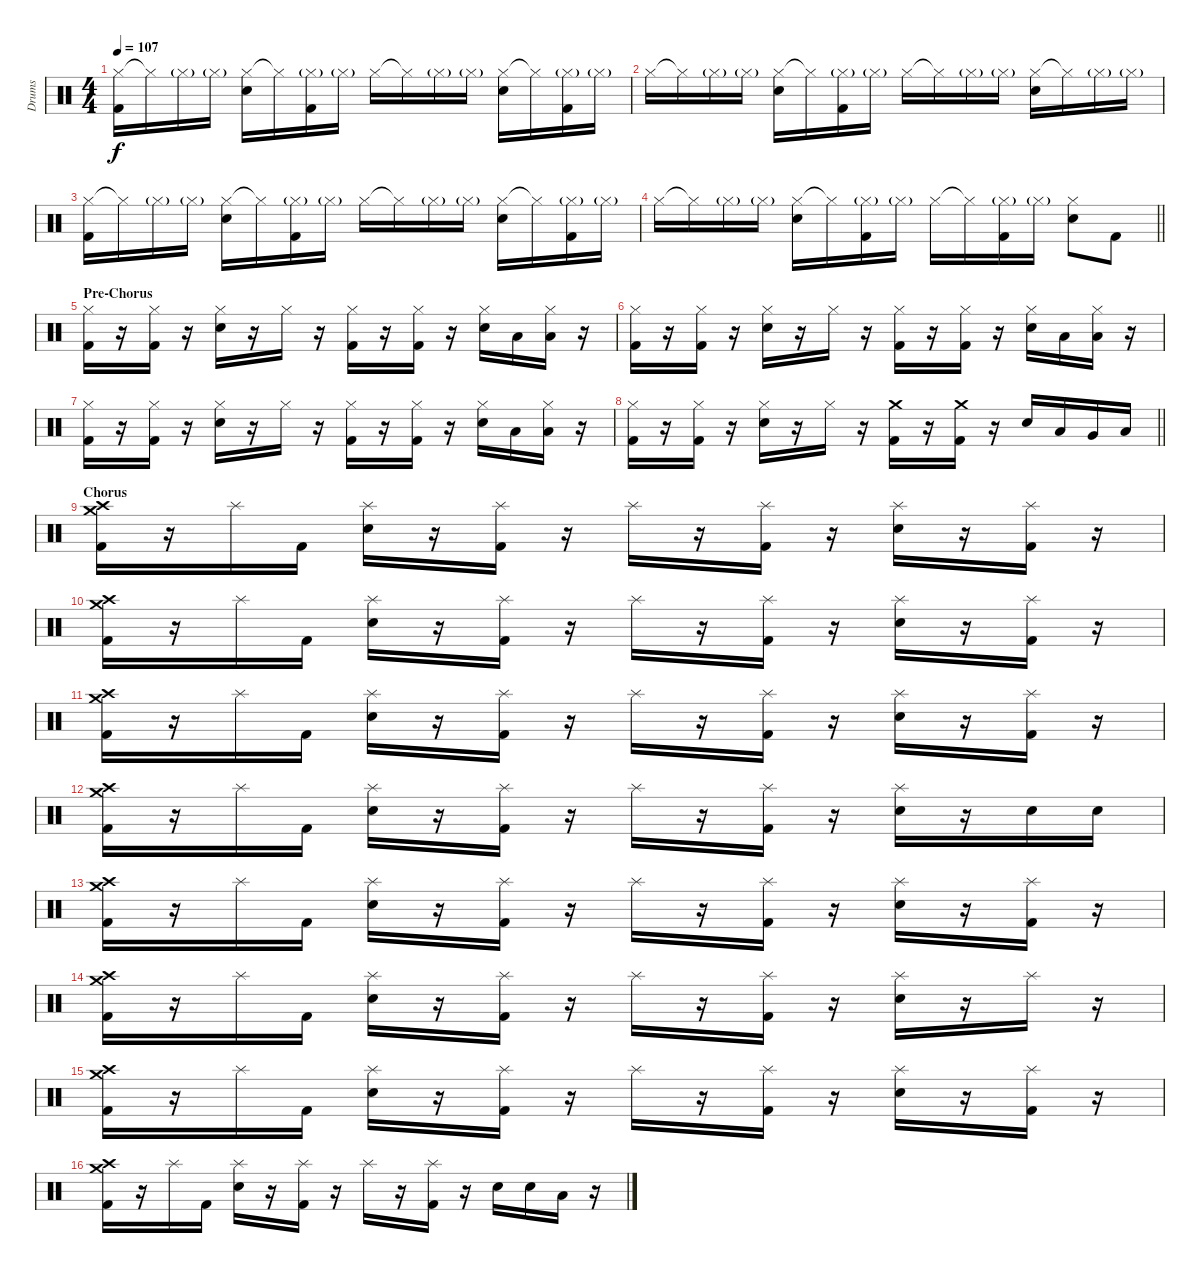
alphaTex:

\track ("Drums" "Drums") {instrument percussion}
\staff {score}
\articulation defaults
\ts (4 4)
\tempo 107
\clef neutral
\ks c
("Hi-Hat (closed)" "Kick (hit) 2").16{dy f} "Hi-Hat (closed)"{t}.16 "Hi-Hat (closed)"{g}.16 "Hi-Hat (closed)"{g}.16 ("Hi-Hat (closed)" "Electric Snare (hit)").16 "Hi-Hat (closed)"{t}.16 ("Hi-Hat (closed)"{g} "Kick (hit) 2").16 "Hi-Hat (closed)"{g}.16 "Hi-Hat (closed)".16 "Hi-Hat (closed)"{t}.16 "Hi-Hat (closed)"{g}.16 "Hi-Hat (closed)"{g}.16 ("Hi-Hat (closed)" "Electric Snare (hit)").16 "Hi-Hat (closed)"{t}.16 ("Hi-Hat (closed)"{g} "Kick (hit) 2").16 "Hi-Hat (closed)"{g}.16 |
"Hi-Hat (closed)".16 "Hi-Hat (closed)"{t}.16 "Hi-Hat (closed)"{g}.16 "Hi-Hat (closed)"{g}.16 ("Hi-Hat (closed)" "Electric Snare (hit)").16 "Hi-Hat (closed)"{t}.16 ("Hi-Hat (closed)"{g} "Kick (hit) 2").16 "Hi-Hat (closed)"{g}.16 "Hi-Hat (closed)".16 "Hi-Hat (closed)"{t}.16 "Hi-Hat (closed)"{g}.16 "Hi-Hat (closed)"{g}.16 ("Hi-Hat (closed)" "Electric Snare (hit)").16 "Hi-Hat (closed)"{t}.16 "Hi-Hat (closed)"{g}.16 "Hi-Hat (closed)"{g}.16 |
("Hi-Hat (closed)" "Kick (hit) 2").16 "Hi-Hat (closed)"{t}.16 "Hi-Hat (closed)"{g}.16 "Hi-Hat (closed)"{g}.16 ("Hi-Hat (closed)" "Electric Snare (hit)").16 "Hi-Hat (closed)"{t}.16 ("Hi-Hat (closed)"{g} "Kick (hit) 2").16 "Hi-Hat (closed)"{g}.16 "Hi-Hat (closed)".16 "Hi-Hat (closed)"{t}.16 "Hi-Hat (closed)"{g}.16 "Hi-Hat (closed)"{g}.16 ("Hi-Hat (closed)" "Electric Snare (hit)").16 "Hi-Hat (closed)"{t}.16 ("Hi-Hat (closed)"{g} "Kick (hit) 2").16 "Hi-Hat (closed)"{g}.16 |
\barLineRight lightlight "Hi-Hat (closed)".16 "Hi-Hat (closed)"{t}.16 "Hi-Hat (closed)"{g}.16 "Hi-Hat (closed)"{g}.16
("Hi-Hat (closed)" "Electric Snare (hit)").16 "Hi-Hat (closed)"{t}.16 ("Hi-Hat (closed)"{g} "Kick (hit) 2").16 "Hi-Hat (closed)"{g}.16 "Hi-Hat (closed)".16 "Hi-Hat (closed)"{t}.16 ("Hi-Hat (closed)"{g} "Kick (hit) 2").16 "Hi-Hat (closed)"{g}.16 ("Hi-Hat (closed)" "Electric Snare (hit)").8 "Kick (hit) 2".8 |
\section ("" "Pre-Chorus")
("Hi-Hat (closed)" "Kick (hit) 2").16 r.16 ("Hi-Hat (closed)" "Kick (hit) 2").16 r.16 ("Hi-Hat (closed)" "Electric Snare (hit)").16 r.16 "Hi-Hat (closed)".16 r.16 ("Hi-Hat (closed)" "Kick (hit) 2").16 r.16 ("Hi-Hat (closed)" "Kick (hit) 2").16 r.16 ("Hi-Hat (closed)" "Electric Snare (hit)").16 "Low Tom (hit)".16 ("Hi-Hat (closed)" "Low Floor Tom (hit)").16 r.16 |
("Hi-Hat (closed)" "Kick (hit) 2").16 r.16 ("Hi-Hat (closed)" "Kick (hit) 2").16 r.16 ("Hi-Hat (closed)" "Electric Snare (hit)").16 r.16 "Hi-Hat (closed)".16 r.16 ("Hi-Hat (closed)" "Kick (hit) 2").16 r.16 ("Hi-Hat (closed)" "Kick (hit) 2").16 r.16 ("Hi-Hat (closed)" "Electric Snare (hit)").16 "Low Tom (hit)".16 ("Hi-Hat (closed)" "Low Floor Tom (hit)").16 r.16 |
("Hi-Hat (closed)" "Kick (hit) 2").16 r.16 ("Hi-Hat (closed)" "Kick (hit) 2").16 r.16 ("Hi-Hat (closed)" "Electric Snare (hit)").16 r.16 "Hi-Hat (closed)".16 r.16 ("Hi-Hat (closed)" "Kick (hit) 2").16 r.16 ("Hi-Hat (closed)" "Kick (hit) 2").16 r.16 ("Hi-Hat (closed)" "Electric Snare (hit)").16 "Low Tom (hit)".16 ("Hi-Hat (closed)" "Low Floor Tom (hit)").16 r.16 |
\barLineRight lightlight
("Hi-Hat (closed)" "Kick (hit) 2").16 r.16 ("Hi-Hat (closed)" "Kick (hit) 2").16 r.16 ("Hi-Hat (closed)" "Electric Snare (hit)").16 r.16 "Hi-Hat (closed)".16 r.16 ("Crash medium (hit)" "Kick (hit) 2").16 r.16 ("Crash medium (hit)" "Kick (hit) 2").16 r.16 "Electric Snare (hit)".16 "Low Tom (hit)".16 "Very Low Tom (hit)".16 "Low Floor Tom (hit)".16 |
\section ("" "Chorus")
("Crash medium (hit)" "Crash high (hit)" "Kick (hit) 2").16 r.16 "Splash (hit)".16 "Kick (hit) 2".16 ("Splash (hit)" "Electric Snare (hit)").16 r.16 ("Splash (hit)" "Kick (hit) 2").16 r.16 "Splash (hit)".16 r.16 ("Splash (hit)" "Kick (hit) 2").16 r.16 ("Splash (hit)" "Electric Snare (hit)").16 r.16 ("Splash (hit)" "Kick (hit) 2").16 r.16 |
("Crash medium (hit)" "Crash high (hit)" "Kick (hit) 2").16 r.16 "Splash (hit)".16 "Kick (hit) 2".16 ("Splash (hit)" "Electric Snare (hit)").16 r.16 ("Splash (hit)" "Kick (hit) 2").16 r.16 "Splash (hit)".16 r.16 ("Splash (hit)" "Kick (hit) 2").16 r.16 ("Splash (hit)" "Electric Snare (hit)").16 r.16 ("Splash (hit)" "Kick (hit) 2").16 r.16 |
("Crash medium (hit)" "Crash high (hit)" "Kick (hit) 2").16 r.16 "Splash (hit)".16 "Kick (hit) 2".16 ("Splash (hit)" "Electric Snare (hit)").16 r.16 ("Splash (hit)" "Kick (hit) 2").16 r.16 "Splash (hit)".16 r.16 ("Splash (hit)" "Kick (hit) 2").16 r.16 ("Splash (hit)" "Electric Snare (hit)").16 r.16 ("Splash (hit)" "Kick (hit) 2").16 r.16 |
("Crash medium (hit)" "Crash high (hit)" "Kick (hit) 2").16 r.16 "Splash (hit)".16 "Kick (hit) 2".16 ("Splash (hit)" "Electric Snare (hit)").16 r.16 ("Splash (hit)" "Kick (hit) 2").16 r.16 "Splash (hit)".16 r.16 ("Splash (hit)" "Kick (hit) 2").16 r.16 ("Splash (hit)" "Electric Snare (hit)").16 r.16 "Electric Snare (hit)".16 "Electric Snare (hit)".16 |
("Crash medium (hit)" "Crash high (hit)" "Kick (hit) 2").16 r.16 "Splash (hit)".16 "Kick (hit) 2".16 ("Splash (hit)" "Electric Snare (hit)").16 r.16 ("Splash (hit)" "Kick (hit) 2").16 r.16 "Splash (hit)".16 r.16 ("Splash (hit)" "Kick (hit) 2").16 r.16 ("Splash (hit)" "Electric Snare (hit)").16 r.16 ("Splash (hit)" "Kick (hit) 2").16 r.16 |
("Crash medium (hit)" "Crash high (hit)" "Kick (hit) 2").16 r.16 "Splash (hit)".16 "Kick (hit) 2".16 ("Splash (hit)" "Electric Snare (hit)").16 r.16 ("Splash (hit)" "Kick (hit) 2").16 r.16 "Splash (hit)".16 r.16 ("Splash (hit)" "Kick (hit) 2").16 r.16 ("Splash (hit)" "Electric Snare (hit)").16 r.16 "Splash (hit)".16 r.16 |
("Crash medium (hit)" "Crash high (hit)" "Kick (hit) 2").16 r.16 "Splash (hit)".16 "Kick (hit) 2".16 ("Splash (hit)" "Electric Snare (hit)").16 r.16 ("Splash (hit)" "Kick (hit) 2").16 r.16 "Splash (hit)".16 r.16 ("Splash (hit)" "Kick (hit) 2").16 r.16 ("Splash (hit)" "Electric Snare (hit)").16 r.16 ("Splash (hit)" "Kick (hit) 2").16 r.16 |
("Crash medium (hit)" "Crash high (hit)" "Kick (hit) 2").16 r.16 "Splash (hit)".16 "Kick (hit) 2".16 ("Splash (hit)" "Electric Snare (hit)").16 r.16 ("Splash (hit)" "Kick (hit) 2").16 r.16 "Splash (hit)".16 r.16 ("Splash (hit)" "Kick (hit) 2").16 r.16 "Electric Snare (hit)".16 "Electric Snare (hit)".16 "Low Floor Tom (hit)".16 r.16
